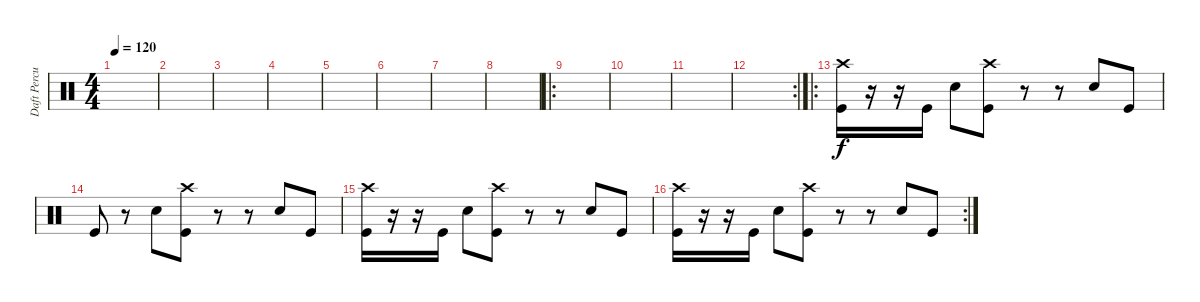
\track ("Daft Percussion 1" "Daft Percu") {instrument percussion}
\staff {score}
\articulation defaults
\ts (4 4)
\tempo 120
\clef neutral
\ks c
|
|
|
|
|
|
|
|
\ro
|
|
|
\rc 2
|
\ro
("Crash high (hit)" "Kick (hit)").16 r.16 r.16 "Kick (hit)".16 "Electric Snare (hit)".8 ("Crash high (hit)" "Kick (hit)").8 r.8 r.8 "Electric Snare (hit)".8 "Kick (hit)".8 |
"Kick (hit)".8 r.8 "Electric Snare (hit)".8 ("Crash high (hit)" "Kick (hit)").8 r.8 r.8 "Electric Snare (hit)".8 "Kick (hit)".8 |
("Crash high (hit)" "Kick (hit)").16 r.16 r.16 "Kick (hit)".16 "Electric Snare (hit)".8 ("Crash high (hit)" "Kick (hit)").8 r.8 r.8 "Electric Snare (hit)".8 "Kick (hit)".8 |
\rc 2
("Crash high (hit)" "Kick (hit)").16 r.16 r.16 "Kick (hit)".16 "Electric Snare (hit)".8 ("Crash high (hit)" "Kick (hit)").8 r.8 r.8 "Electric Snare (hit)".8 "Kick (hit)".8
